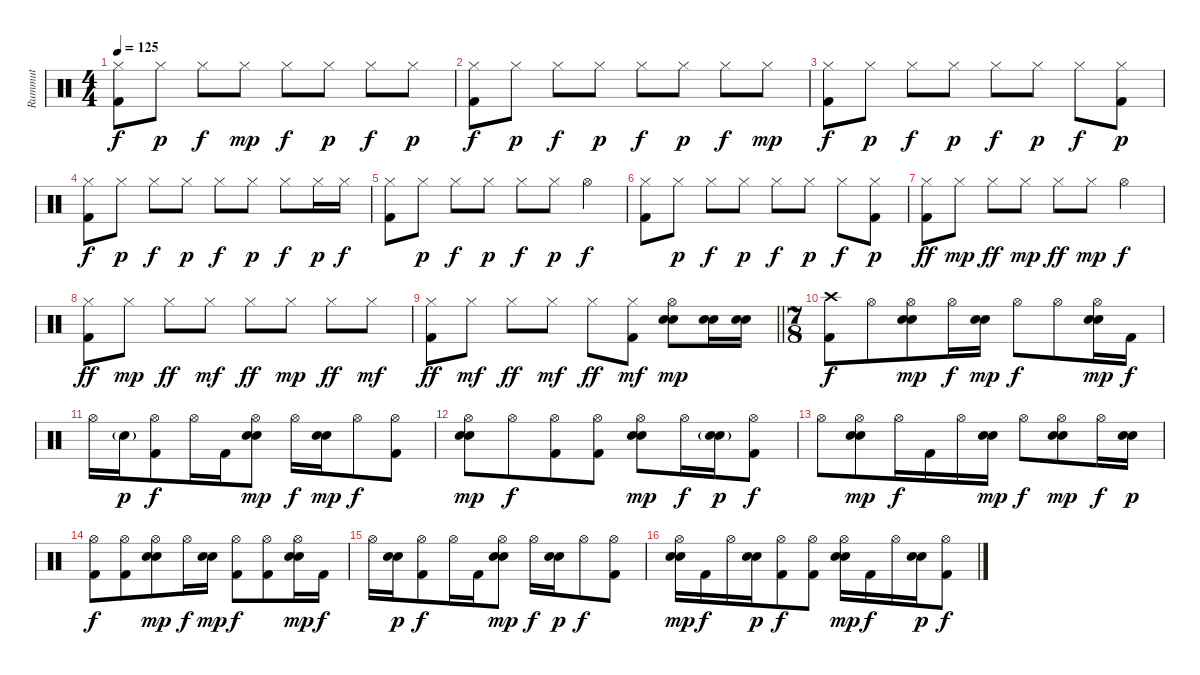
\track ("Rummut" "Rummut") {instrument percussion}
\staff {score}
\articulation defaults
\ts (4 4)
\tempo 125
\clef neutral
\ks c
("Hi-Hat (closed)" "Kick (hit) 2").8{dy f} "Hi-Hat (closed)".8{dy p} "Hi-Hat (closed)".8{dy f} "Hi-Hat (closed)".8{dy mp} "Hi-Hat (closed)".8{dy f} "Hi-Hat (closed)".8{dy p} "Hi-Hat (closed)".8{dy f} "Hi-Hat (closed)".8{dy p} |
("Hi-Hat (closed)" "Kick (hit) 2").8{dy f} "Hi-Hat (closed)".8{dy p} "Hi-Hat (closed)".8{dy f} "Hi-Hat (closed)".8{dy p} "Hi-Hat (closed)".8{dy f} "Hi-Hat (closed)".8{dy p} "Hi-Hat (closed)".8{dy f} "Hi-Hat (closed)".8{dy mp} |
("Hi-Hat (closed)" "Kick (hit) 2").8{dy f} "Hi-Hat (closed)".8{dy p} "Hi-Hat (closed)".8{dy f} "Hi-Hat (closed)".8{dy p} "Hi-Hat (closed)".8{dy f} "Hi-Hat (closed)".8{dy p} "Hi-Hat (closed)".8{dy f} ("Hi-Hat (closed)" "Kick (hit) 2").8{dy p} |
("Hi-Hat (closed)" "Kick (hit) 2").8{dy f} "Hi-Hat (closed)".8{dy p} "Hi-Hat (closed)".8{dy f} "Hi-Hat (closed)".8{dy p} "Hi-Hat (closed)".8{dy f} "Hi-Hat (closed)".8{dy p} "Hi-Hat (closed)".8{dy f} "Hi-Hat (closed)".16{dy p} "Hi-Hat (closed)".16{dy f} |
("Hi-Hat (closed)" "Kick (hit) 2").8 "Hi-Hat (closed)".8{dy p} "Hi-Hat (closed)".8{dy f} "Hi-Hat (closed)".8{dy p} "Hi-Hat (closed)".8{dy f} "Hi-Hat (closed)".8{dy p} "Hi-Hat (open)".4{dy f} |
("Hi-Hat (closed)" "Kick (hit) 2").8 "Hi-Hat (closed)".8{dy p} "Hi-Hat (closed)".8{dy f} "Hi-Hat (closed)".8{dy p} "Hi-Hat (closed)".8{dy f} "Hi-Hat (closed)".8{dy p} "Hi-Hat (closed)".8{dy f} ("Hi-Hat (closed)" "Kick (hit) 2").8{dy p} |
("Hi-Hat (closed)" "Kick (hit) 2").8{dy ff} "Hi-Hat (closed)".8{dy mp} "Hi-Hat (closed)".8{dy ff} "Hi-Hat (closed)".8{dy mp} "Hi-Hat (closed)".8{dy ff} "Hi-Hat (closed)".8{dy mp} "Hi-Hat (open)".4{dy f} |
("Hi-Hat (closed)" "Kick (hit) 2").8{dy ff} "Hi-Hat (closed)".8{dy mp} "Hi-Hat (closed)".8{dy ff} "Hi-Hat (closed)".8{dy mf} "Hi-Hat (closed)".8{dy ff} "Hi-Hat (closed)".8{dy mp} "Hi-Hat (closed)".8{dy ff} "Hi-Hat (closed)".8{dy mf} |
\barLineRight lightlight
("Hi-Hat (closed)" "Kick (hit) 2").8{dy ff} "Hi-Hat (closed)".8{dy mf} "Hi-Hat (closed)".8{dy ff} "Hi-Hat (closed)".8{dy mf} "Hi-Hat (closed)".8{dy ff} ("Hi-Hat (closed)" "Kick (hit) 2").8{dy mf} ("Hi-Hat (open)" "Electric Snare (hit)" "Snare (hit) 2").8{dy mp} ("Electric Snare (hit)" "Snare (hit) 2").16 ("Electric Snare (hit)" "Snare (hit) 2").16 |
\ts (7 8)
\section ("" "")
("Crash high (hit)" "Kick (hit) 2").8{dy f} "Hi-Hat (open)".8 ("Hi-Hat (open)" "Electric Snare (hit)" "Snare (hit) 2").8{dy mp} "Hi-Hat (open)".16{dy f} ("Electric Snare (hit)" "Snare (hit) 2").16{dy mp} "Hi-Hat (open)".8{dy f} "Hi-Hat (open)".8 ("Hi-Hat (open)" "Electric Snare (hit)" "Snare (hit) 2").16{dy mp} "Kick (hit) 2".16{dy f} |
"Hi-Hat (open)".16 "Snare (hit) 2"{g}.16{dy p} ("Hi-Hat (open)" "Kick (hit) 2").8{dy f} "Hi-Hat (open)".16 "Kick (hit) 2".16 ("Hi-Hat (open)" "Electric Snare (hit)" "Snare (hit) 2").8{dy mp} "Hi-Hat (open)".16{dy f} ("Electric Snare (hit)" "Snare (hit) 2").16{dy mp} "Hi-Hat (open)".8{dy f} ("Hi-Hat (open)" "Kick (hit) 2").8 |
("Hi-Hat (open)" "Electric Snare (hit)" "Snare (hit) 2").8{dy mp} "Hi-Hat (open)".8{dy f} ("Hi-Hat (open)" "Kick (hit) 2").8 ("Hi-Hat (open)" "Kick (hit) 2").8 ("Hi-Hat (open)" "Electric Snare (hit)" "Snare (hit) 2").8{dy mp} "Hi-Hat (open)".16{dy f} ("Electric Snare (hit)"{g} "Snare (hit) 2"{g}).16{dy p} ("Hi-Hat (open)" "Kick (hit) 2").8{dy f} |
"Hi-Hat (open)".8 ("Hi-Hat (open)" "Electric Snare (hit)" "Snare (hit) 2").8{dy mp} "Hi-Hat (open)".16{dy f} "Kick (hit) 2".16 "Hi-Hat (open)".16 ("Electric Snare (hit)" "Snare (hit) 2").16{dy mp} "Hi-Hat (open)".8{dy f} ("Hi-Hat (open)" "Electric Snare (hit)" "Snare (hit) 2").8{dy mp} "Hi-Hat (open)".16{dy f} ("Electric Snare (hit)" "Snare (hit) 2").16{dy p} |
("Hi-Hat (open)" "Kick (hit) 2").8{dy f} ("Hi-Hat (open)" "Kick (hit) 2").8 ("Hi-Hat (open)" "Electric Snare (hit)" "Snare (hit) 2").8{dy mp} "Hi-Hat (open)".16{dy f} ("Electric Snare (hit)" "Snare (hit) 2").16{dy mp} ("Hi-Hat (open)" "Kick (hit) 2").8{dy f} ("Hi-Hat (open)" "Kick (hit) 2").8 ("Hi-Hat (open)" "Electric Snare (hit)" "Snare (hit) 2").16{dy mp} "Kick (hit) 2".16{dy f} |
"Hi-Hat (open)".16 ("Electric Snare (hit)" "Snare (hit) 2").16{dy p} ("Hi-Hat (open)" "Kick (hit) 2").8{dy f} "Hi-Hat (open)".16 "Kick (hit) 2".16 ("Hi-Hat (open)" "Electric Snare (hit)" "Snare (hit) 2").8{dy mp} "Hi-Hat (open)".16{dy f} ("Electric Snare (hit)" "Snare (hit) 2").16{dy p} "Hi-Hat (open)".8{dy f} ("Hi-Hat (open)" "Kick (hit) 2").8 |
("Hi-Hat (open)" "Electric Snare (hit)" "Snare (hit) 2").16{dy mp} "Kick (hit) 2".16{dy f} "Hi-Hat (open)".16 ("Electric Snare (hit)" "Snare (hit) 2").16{dy p} ("Hi-Hat (open)" "Kick (hit) 2").8{dy f} ("Hi-Hat (open)" "Kick (hit) 2").8 ("Hi-Hat (open)" "Electric Snare (hit)" "Snare (hit) 2").16{dy mp} "Kick (hit) 2".16{dy f} "Hi-Hat (open)".16 ("Electric Snare (hit)" "Snare (hit) 2").16{dy p} ("Hi-Hat (open)" "Kick (hit) 2").8{dy f}
